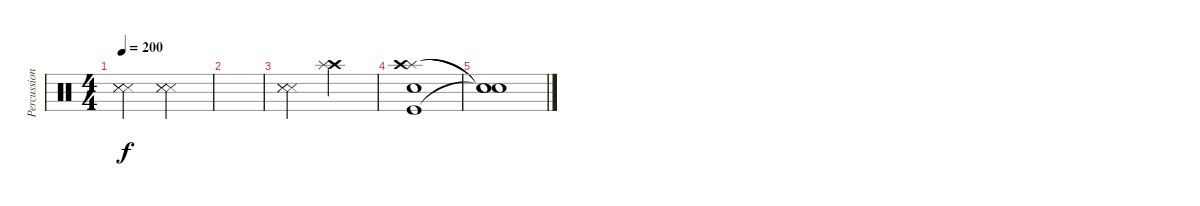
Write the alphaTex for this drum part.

\track ("Percussions" "Percussion") {instrument percussion}
\staff {score}
\articulation defaults
\ts (4 4)
\tempo 200
\clef neutral
\ks c
("Snare (side stick) 3" "Snare (side stick) 3" "Snare (side stick) 3").2{dy f} ("Snare (side stick) 3" "Snare (side stick) 3" "Snare (side stick) 3").2 |
|
("Snare (side stick) 3" "Snare (side stick) 3" "Snare (side stick) 3").2 ("Crash high (hit)" "Splash (hit)").2 |
("Splash (hit)" "Kick (hit)" "Crash high (hit)" "Snare (hit) 2").1 |
("Snare (hit)"{t} "Snare (hit)"{t} "Snare (hit)"{t}).1
